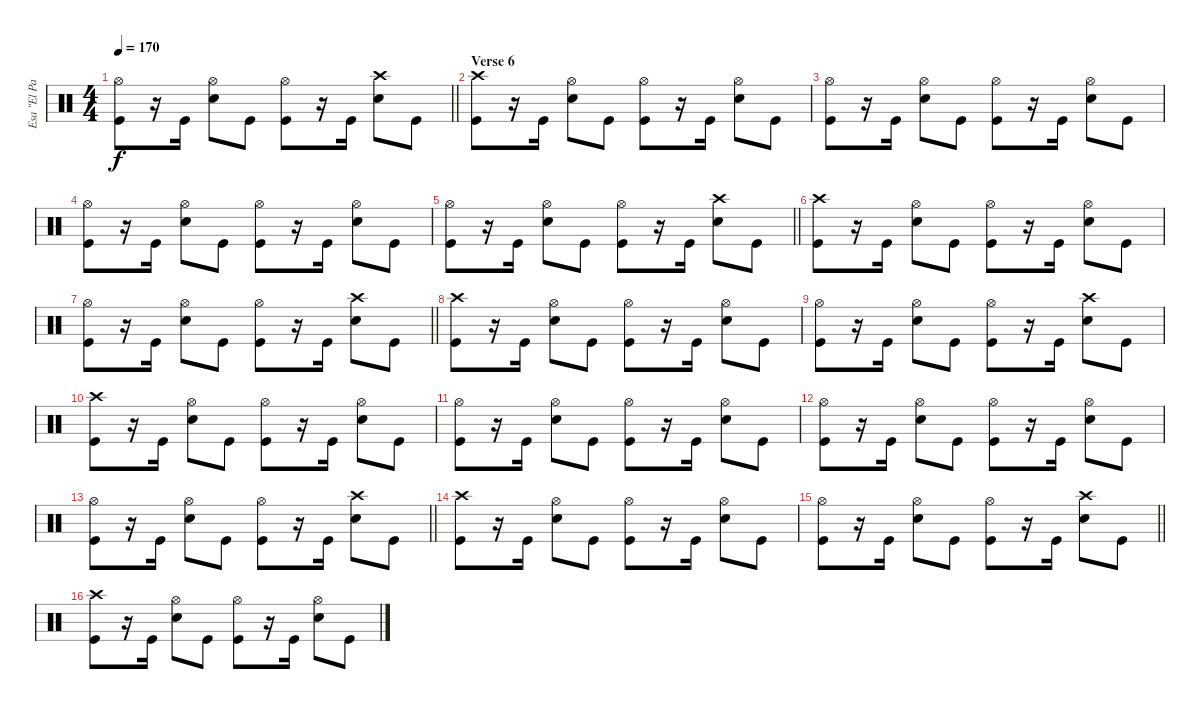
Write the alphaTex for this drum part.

\track ("Esa \"El Pasaderia\" Palosaari" "Esa \"El Pa") {instrument percussion}
\staff {score}
\articulation defaults
\ts (4 4)
\tempo 170
\clef neutral
\barLineRight lightlight
\ks c
("Hi-Hat (open)" "Kick (hit)").8{dy f} r.16 "Kick (hit)".16 ("Hi-Hat (open)" "Snare (hit) 2").8 "Kick (hit)".8 ("Hi-Hat (open)" "Kick (hit)").8 r.16 "Kick (hit)".16 ("Crash high (hit)" "Snare (hit) 2").8 "Kick (hit)".8 |
\section ("" "Verse 6")
("Crash high (hit)" "Kick (hit)").8 r.16 "Kick (hit)".16 ("Hi-Hat (open)" "Snare (hit) 2").8 "Kick (hit)".8 ("Hi-Hat (open)" "Kick (hit)").8 r.16 "Kick (hit)".16 ("Hi-Hat (open)" "Snare (hit) 2").8 "Kick (hit)".8 |
("Hi-Hat (open)" "Kick (hit)").8 r.16 "Kick (hit)".16 ("Hi-Hat (open)" "Snare (hit) 2").8 "Kick (hit)".8 ("Hi-Hat (open)" "Kick (hit)").8 r.16 "Kick (hit)".16 ("Hi-Hat (open)" "Snare (hit) 2").8 "Kick (hit)".8 |
("Hi-Hat (open)" "Kick (hit)").8 r.16 "Kick (hit)".16 ("Hi-Hat (open)" "Snare (hit) 2").8 "Kick (hit)".8 ("Hi-Hat (open)" "Kick (hit)").8 r.16 "Kick (hit)".16 ("Hi-Hat (open)" "Snare (hit) 2").8 "Kick (hit)".8 |
\barLineRight lightlight
("Hi-Hat (open)" "Kick (hit)").8 r.16 "Kick (hit)".16 ("Hi-Hat (open)" "Snare (hit) 2").8 "Kick (hit)".8 ("Hi-Hat (open)" "Kick (hit)").8 r.16 "Kick (hit)".16 ("Crash high (hit)" "Snare (hit) 2").8 "Kick (hit)".8 |
("Crash high (hit)" "Kick (hit)").8 r.16 "Kick (hit)".16 ("Hi-Hat (open)" "Snare (hit) 2").8 "Kick (hit)".8 ("Hi-Hat (open)" "Kick (hit)").8 r.16 "Kick (hit)".16 ("Hi-Hat (open)" "Snare (hit) 2").8 "Kick (hit)".8 |
\barLineRight lightlight
("Hi-Hat (open)" "Kick (hit)").8 r.16 "Kick (hit)".16 ("Hi-Hat (open)" "Snare (hit) 2").8 "Kick (hit)".8 ("Hi-Hat (open)" "Kick (hit)").8 r.16 "Kick (hit)".16 ("Crash high (hit)" "Snare (hit) 2").8 "Kick (hit)".8 |
("Crash high (hit)" "Kick (hit)").8 r.16 "Kick (hit)".16 ("Hi-Hat (open)" "Snare (hit) 2").8 "Kick (hit)".8 ("Hi-Hat (open)" "Kick (hit)").8 r.16 "Kick (hit)".16 ("Hi-Hat (open)" "Snare (hit) 2").8 "Kick (hit)".8 |
("Hi-Hat (open)" "Kick (hit)").8 r.16 "Kick (hit)".16 ("Hi-Hat (open)" "Snare (hit) 2").8 "Kick (hit)".8 ("Hi-Hat (open)" "Kick (hit)").8 r.16 "Kick (hit)".16 ("Crash high (hit)" "Snare (hit) 2").8 "Kick (hit)".8 |
("Crash high (hit)" "Kick (hit)").8 r.16 "Kick (hit)".16 ("Hi-Hat (open)" "Snare (hit) 2").8 "Kick (hit)".8 ("Hi-Hat (open)" "Kick (hit)").8 r.16 "Kick (hit)".16 ("Hi-Hat (open)" "Snare (hit) 2").8 "Kick (hit)".8 |
("Hi-Hat (open)" "Kick (hit)").8 r.16 "Kick (hit)".16 ("Hi-Hat (open)" "Snare (hit) 2").8 "Kick (hit)".8 ("Hi-Hat (open)" "Kick (hit)").8 r.16 "Kick (hit)".16 ("Hi-Hat (open)" "Snare (hit) 2").8 "Kick (hit)".8 |
("Hi-Hat (open)" "Kick (hit)").8 r.16 "Kick (hit)".16 ("Hi-Hat (open)" "Snare (hit) 2").8 "Kick (hit)".8 ("Hi-Hat (open)" "Kick (hit)").8 r.16 "Kick (hit)".16 ("Hi-Hat (open)" "Snare (hit) 2").8 "Kick (hit)".8 |
\barLineRight lightlight
("Hi-Hat (open)" "Kick (hit)").8 r.16 "Kick (hit)".16 ("Hi-Hat (open)" "Snare (hit) 2").8 "Kick (hit)".8 ("Hi-Hat (open)" "Kick (hit)").8 r.16 "Kick (hit)".16 ("Crash high (hit)" "Snare (hit) 2").8 "Kick (hit)".8 |
("Crash high (hit)" "Kick (hit)").8 r.16 "Kick (hit)".16 ("Hi-Hat (open)" "Snare (hit) 2").8 "Kick (hit)".8 ("Hi-Hat (open)" "Kick (hit)").8 r.16 "Kick (hit)".16 ("Hi-Hat (open)" "Snare (hit) 2").8 "Kick (hit)".8 |
\barLineRight lightlight
("Hi-Hat (open)" "Kick (hit)").8 r.16 "Kick (hit)".16 ("Hi-Hat (open)" "Snare (hit) 2").8 "Kick (hit)".8 ("Hi-Hat (open)" "Kick (hit)").8 r.16 "Kick (hit)".16 ("Crash high (hit)" "Snare (hit) 2").8 "Kick (hit)".8 |
("Crash high (hit)" "Kick (hit)").8 r.16 "Kick (hit)".16 ("Hi-Hat (open)" "Snare (hit) 2").8 "Kick (hit)".8 ("Hi-Hat (open)" "Kick (hit)").8 r.16 "Kick (hit)".16 ("Hi-Hat (open)" "Snare (hit) 2").8 "Kick (hit)".8
